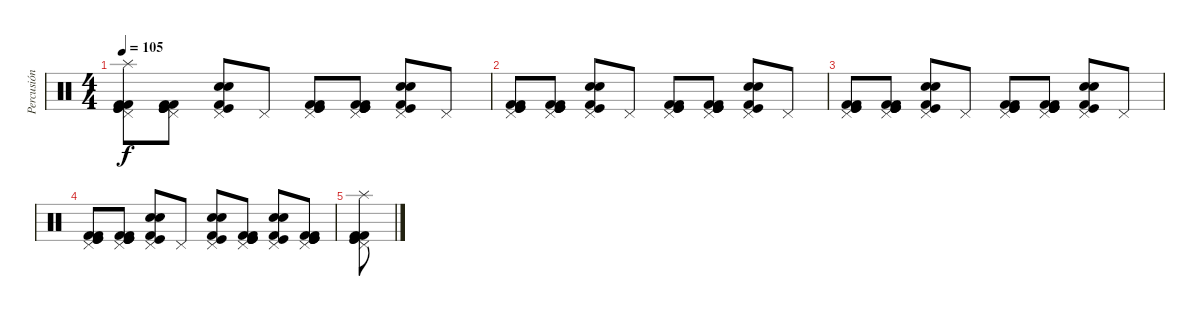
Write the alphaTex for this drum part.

\track ("Percusión" "Percusión") {instrument percussion}
\staff {score}
\articulation defaults
\ts (4 4)
\tempo 105
\clef neutral
\ks c
("Kick (hit) 2" "Kick (hit)" "Pedal Hi-Hat (hit)" "Splash (hit)" "Kick (hit) 2" "Kick (hit)").8{dy f} ("Kick (hit) 2" "Kick (hit)" "Pedal Hi-Hat (hit)" "Kick (hit) 2" "Kick (hit)" "Kick (hit)").8 ("Snare (hit) 2" "Pedal Hi-Hat (hit)" "Electric Snare (hit)" "Kick (hit)" "Kick (hit) 2").8 "Pedal Hi-Hat (hit)".8 ("Kick (hit) 2" "Kick (hit)" "Pedal Hi-Hat (hit)" "Kick (hit) 2" "Kick (hit)").8 ("Kick (hit) 2" "Kick (hit)" "Pedal Hi-Hat (hit)" "Kick (hit) 2" "Kick (hit)" "Kick (hit)").8 ("Snare (hit) 2" "Pedal Hi-Hat (hit)" "Electric Snare (hit)" "Kick (hit)" "Kick (hit) 2").8 "Pedal Hi-Hat (hit)".8 |
("Kick (hit) 2" "Kick (hit)" "Pedal Hi-Hat (hit)" "Kick (hit) 2" "Kick (hit)").8 ("Kick (hit) 2" "Kick (hit)" "Pedal Hi-Hat (hit)" "Kick (hit) 2" "Kick (hit)" "Kick (hit)").8 ("Snare (hit) 2" "Pedal Hi-Hat (hit)" "Electric Snare (hit)" "Kick (hit)" "Kick (hit) 2").8 "Pedal Hi-Hat (hit)".8 ("Kick (hit) 2" "Kick (hit)" "Pedal Hi-Hat (hit)" "Kick (hit) 2" "Kick (hit)").8 ("Kick (hit) 2" "Kick (hit)" "Pedal Hi-Hat (hit)" "Kick (hit) 2" "Kick (hit)" "Kick (hit)").8 ("Snare (hit) 2" "Pedal Hi-Hat (hit)" "Electric Snare (hit)" "Kick (hit)" "Kick (hit) 2").8 "Pedal Hi-Hat (hit)".8 |
("Kick (hit) 2" "Kick (hit)" "Pedal Hi-Hat (hit)" "Kick (hit) 2" "Kick (hit)").8 ("Kick (hit) 2" "Kick (hit)" "Pedal Hi-Hat (hit)" "Kick (hit) 2" "Kick (hit)" "Kick (hit)").8 ("Snare (hit) 2" "Pedal Hi-Hat (hit)" "Electric Snare (hit)" "Kick (hit)" "Kick (hit) 2").8 "Pedal Hi-Hat (hit)".8 ("Kick (hit) 2" "Kick (hit)" "Pedal Hi-Hat (hit)" "Kick (hit) 2" "Kick (hit)").8 ("Kick (hit) 2" "Kick (hit)" "Pedal Hi-Hat (hit)" "Kick (hit) 2" "Kick (hit)" "Kick (hit)").8 ("Snare (hit) 2" "Pedal Hi-Hat (hit)" "Electric Snare (hit)" "Kick (hit)" "Kick (hit) 2").8 "Pedal Hi-Hat (hit)".8 |
("Kick (hit) 2" "Kick (hit)" "Pedal Hi-Hat (hit)" "Kick (hit) 2" "Kick (hit)").8 ("Kick (hit) 2" "Kick (hit)" "Pedal Hi-Hat (hit)" "Kick (hit) 2" "Kick (hit)" "Kick (hit)").8 ("Snare (hit) 2" "Pedal Hi-Hat (hit)" "Electric Snare (hit)" "Kick (hit)" "Kick (hit) 2").8 "Pedal Hi-Hat (hit)".8 ("Snare (hit) 2" "Pedal Hi-Hat (hit)" "Electric Snare (hit)" "Kick (hit)" "Kick (hit) 2").8 ("Kick (hit) 2" "Kick (hit)" "Pedal Hi-Hat (hit)" "Kick (hit) 2" "Kick (hit)" "Kick (hit)").8 ("Snare (hit) 2" "Pedal Hi-Hat (hit)" "Electric Snare (hit)" "Kick (hit)" "Kick (hit) 2").8 ("Kick (hit) 2" "Kick (hit)" "Pedal Hi-Hat (hit)" "Kick (hit) 2" "Kick (hit)" "Kick (hit)").8 |
("Kick (hit) 2" "Kick (hit)" "Pedal Hi-Hat (hit)" "Splash (hit)" "Kick (hit) 2" "Kick (hit)").8
